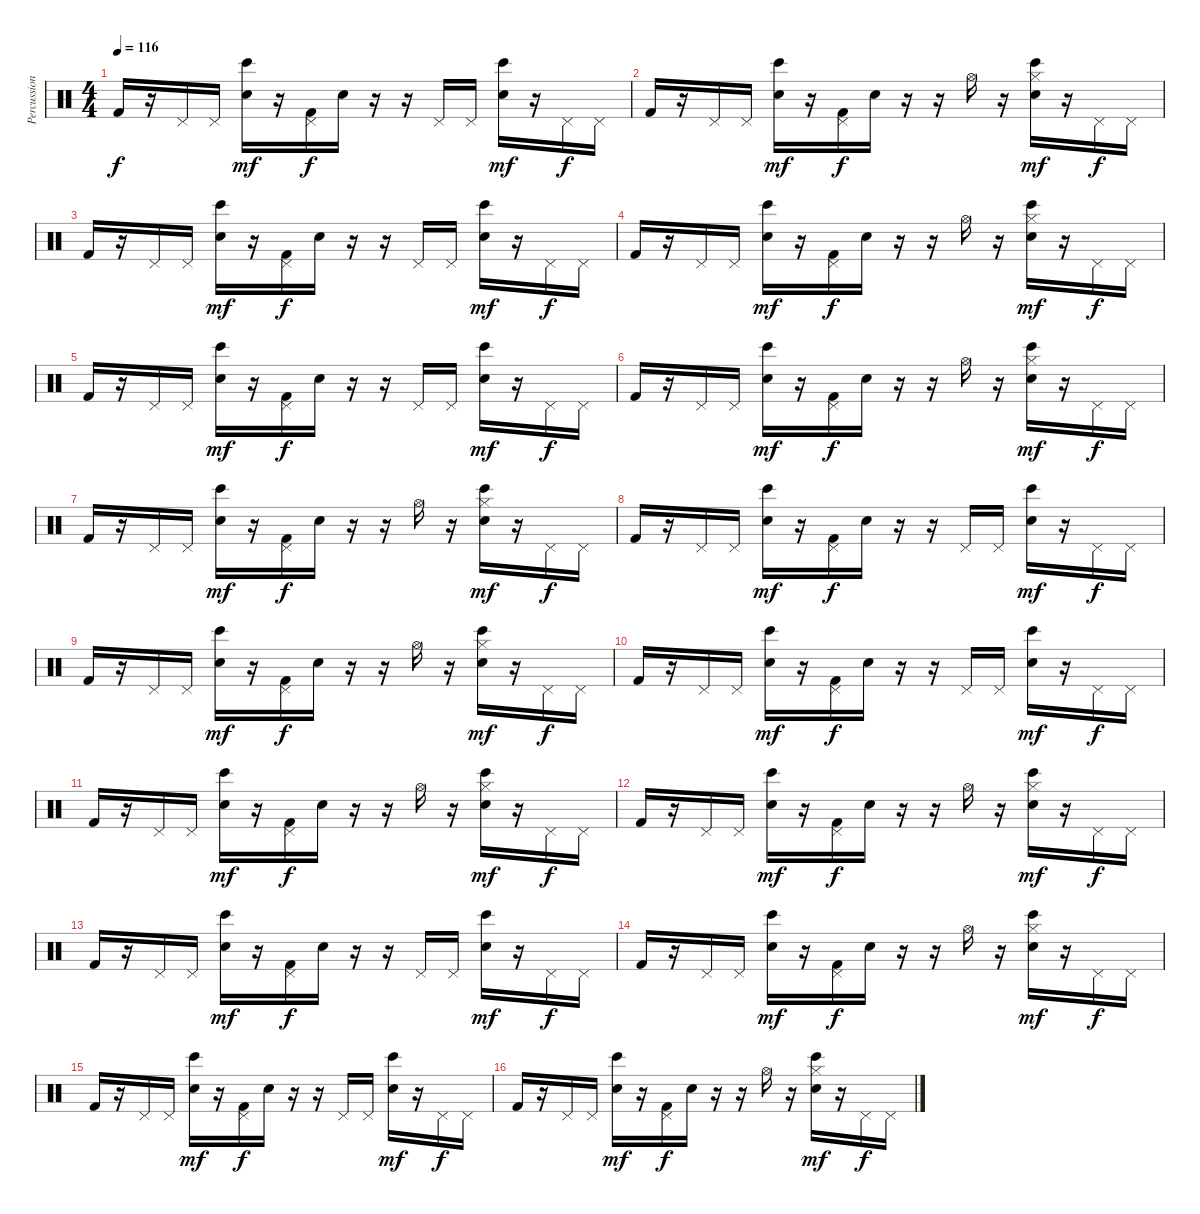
\track ("Percussion" "Percussion") {instrument percussion}
\staff {score}
\articulation defaults
\ts (4 4)
\tempo 116
\clef neutral
\ks c "Kick (hit) 2".16{dy f}
r.16 "Pedal Hi-Hat (hit)".16 "Pedal Hi-Hat (hit)".16 ("Bongo High (hit)" "Hand Clap (hit)").16{dy mf} r.16 ("Pedal Hi-Hat (hit)" "Kick (hit) 2").16{dy f} "Snare (hit)".16 r.16 r.16 "Pedal Hi-Hat (hit)".16 "Pedal Hi-Hat (hit)".16 ("Bongo High (hit)" "Hand Clap (hit)").16{dy mf} r.16 "Pedal Hi-Hat (hit)".16{dy f} "Pedal Hi-Hat (hit)".16 |
"Kick (hit) 2".16 r.16 "Pedal Hi-Hat (hit)".16 "Pedal Hi-Hat (hit)".16 ("Bongo High (hit)" "Hand Clap (hit)").16{dy mf} r.16 ("Pedal Hi-Hat (hit)" "Kick (hit) 2").16{dy f} "Snare (hit)".16 r.16 r.16 "Hi-Hat (open)".16 r.16 ("Hi-Hat (closed)" "Bongo High (hit)" "Hand Clap (hit)").16{dy mf} r.16 "Pedal Hi-Hat (hit)".16{dy f} "Pedal Hi-Hat (hit)".16 |
"Kick (hit) 2".16 r.16 "Pedal Hi-Hat (hit)".16 "Pedal Hi-Hat (hit)".16 ("Bongo High (hit)" "Hand Clap (hit)").16{dy mf} r.16 ("Pedal Hi-Hat (hit)" "Kick (hit) 2").16{dy f} "Snare (hit)".16 r.16 r.16 "Pedal Hi-Hat (hit)".16 "Pedal Hi-Hat (hit)".16 ("Bongo High (hit)" "Hand Clap (hit)").16{dy mf} r.16 "Pedal Hi-Hat (hit)".16{dy f} "Pedal Hi-Hat (hit)".16 |
"Kick (hit) 2".16 r.16 "Pedal Hi-Hat (hit)".16 "Pedal Hi-Hat (hit)".16 ("Bongo High (hit)" "Hand Clap (hit)").16{dy mf} r.16 ("Pedal Hi-Hat (hit)" "Kick (hit) 2").16{dy f} "Snare (hit)".16 r.16 r.16 "Hi-Hat (open)".16 r.16 ("Hi-Hat (closed)" "Bongo High (hit)" "Hand Clap (hit)").16{dy mf} r.16 "Pedal Hi-Hat (hit)".16{dy f} "Pedal Hi-Hat (hit)".16 |
"Kick (hit) 2".16 r.16 "Pedal Hi-Hat (hit)".16 "Pedal Hi-Hat (hit)".16 ("Bongo High (hit)" "Hand Clap (hit)").16{dy mf} r.16 ("Pedal Hi-Hat (hit)" "Kick (hit) 2").16{dy f} "Snare (hit)".16 r.16 r.16 "Pedal Hi-Hat (hit)".16 "Pedal Hi-Hat (hit)".16 ("Bongo High (hit)" "Hand Clap (hit)").16{dy mf} r.16 "Pedal Hi-Hat (hit)".16{dy f} "Pedal Hi-Hat (hit)".16 |
"Kick (hit) 2".16 r.16 "Pedal Hi-Hat (hit)".16 "Pedal Hi-Hat (hit)".16 ("Bongo High (hit)" "Hand Clap (hit)").16{dy mf} r.16 ("Pedal Hi-Hat (hit)" "Kick (hit) 2").16{dy f} "Snare (hit)".16 r.16 r.16 "Hi-Hat (open)".16 r.16 ("Hi-Hat (closed)" "Bongo High (hit)" "Hand Clap (hit)").16{dy mf} r.16 "Pedal Hi-Hat (hit)".16{dy f} "Pedal Hi-Hat (hit)".16 |
"Kick (hit) 2".16 r.16 "Pedal Hi-Hat (hit)".16 "Pedal Hi-Hat (hit)".16 ("Bongo High (hit)" "Hand Clap (hit)").16{dy mf} r.16 ("Pedal Hi-Hat (hit)" "Kick (hit) 2").16{dy f} "Snare (hit)".16 r.16 r.16 "Hi-Hat (open)".16 r.16 ("Hi-Hat (closed)" "Bongo High (hit)" "Hand Clap (hit)").16{dy mf} r.16 "Pedal Hi-Hat (hit)".16{dy f} "Pedal Hi-Hat (hit)".16 |
"Kick (hit) 2".16 r.16 "Pedal Hi-Hat (hit)".16 "Pedal Hi-Hat (hit)".16 ("Bongo High (hit)" "Hand Clap (hit)").16{dy mf} r.16 ("Pedal Hi-Hat (hit)" "Kick (hit) 2").16{dy f} "Snare (hit)".16 r.16 r.16 "Pedal Hi-Hat (hit)".16 "Pedal Hi-Hat (hit)".16 ("Bongo High (hit)" "Hand Clap (hit)").16{dy mf} r.16 "Pedal Hi-Hat (hit)".16{dy f} "Pedal Hi-Hat (hit)".16 |
"Kick (hit) 2".16 r.16 "Pedal Hi-Hat (hit)".16 "Pedal Hi-Hat (hit)".16 ("Bongo High (hit)" "Hand Clap (hit)").16{dy mf} r.16 ("Pedal Hi-Hat (hit)" "Kick (hit) 2").16{dy f} "Snare (hit)".16 r.16 r.16 "Hi-Hat (open)".16 r.16 ("Hi-Hat (closed)" "Bongo High (hit)" "Hand Clap (hit)").16{dy mf} r.16 "Pedal Hi-Hat (hit)".16{dy f} "Pedal Hi-Hat (hit)".16 |
"Kick (hit) 2".16 r.16 "Pedal Hi-Hat (hit)".16 "Pedal Hi-Hat (hit)".16 ("Bongo High (hit)" "Hand Clap (hit)").16{dy mf} r.16 ("Pedal Hi-Hat (hit)" "Kick (hit) 2").16{dy f} "Snare (hit)".16 r.16 r.16 "Pedal Hi-Hat (hit)".16 "Pedal Hi-Hat (hit)".16 ("Bongo High (hit)" "Hand Clap (hit)").16{dy mf} r.16 "Pedal Hi-Hat (hit)".16{dy f} "Pedal Hi-Hat (hit)".16 |
"Kick (hit) 2".16 r.16 "Pedal Hi-Hat (hit)".16 "Pedal Hi-Hat (hit)".16 ("Bongo High (hit)" "Hand Clap (hit)").16{dy mf} r.16 ("Pedal Hi-Hat (hit)" "Kick (hit) 2").16{dy f} "Snare (hit)".16 r.16 r.16 "Hi-Hat (open)".16 r.16 ("Hi-Hat (closed)" "Bongo High (hit)" "Hand Clap (hit)").16{dy mf} r.16 "Pedal Hi-Hat (hit)".16{dy f} "Pedal Hi-Hat (hit)".16 |
"Kick (hit) 2".16 r.16 "Pedal Hi-Hat (hit)".16 "Pedal Hi-Hat (hit)".16 ("Bongo High (hit)" "Hand Clap (hit)").16{dy mf} r.16 ("Pedal Hi-Hat (hit)" "Kick (hit) 2").16{dy f} "Snare (hit)".16 r.16 r.16 "Hi-Hat (open)".16 r.16 ("Hi-Hat (closed)" "Bongo High (hit)" "Hand Clap (hit)").16{dy mf} r.16 "Pedal Hi-Hat (hit)".16{dy f} "Pedal Hi-Hat (hit)".16 |
"Kick (hit) 2".16 r.16 "Pedal Hi-Hat (hit)".16 "Pedal Hi-Hat (hit)".16 ("Bongo High (hit)" "Hand Clap (hit)").16{dy mf} r.16 ("Pedal Hi-Hat (hit)" "Kick (hit) 2").16{dy f} "Snare (hit)".16 r.16 r.16 "Pedal Hi-Hat (hit)".16 "Pedal Hi-Hat (hit)".16 ("Bongo High (hit)" "Hand Clap (hit)").16{dy mf} r.16 "Pedal Hi-Hat (hit)".16{dy f} "Pedal Hi-Hat (hit)".16 |
"Kick (hit) 2".16 r.16 "Pedal Hi-Hat (hit)".16 "Pedal Hi-Hat (hit)".16 ("Bongo High (hit)" "Hand Clap (hit)").16{dy mf} r.16 ("Pedal Hi-Hat (hit)" "Kick (hit) 2").16{dy f} "Snare (hit)".16 r.16 r.16 "Hi-Hat (open)".16 r.16 ("Hi-Hat (closed)" "Bongo High (hit)" "Hand Clap (hit)").16{dy mf} r.16 "Pedal Hi-Hat (hit)".16{dy f} "Pedal Hi-Hat (hit)".16 |
"Kick (hit) 2".16 r.16 "Pedal Hi-Hat (hit)".16 "Pedal Hi-Hat (hit)".16 ("Bongo High (hit)" "Hand Clap (hit)").16{dy mf} r.16 ("Pedal Hi-Hat (hit)" "Kick (hit) 2").16{dy f} "Snare (hit)".16 r.16 r.16 "Pedal Hi-Hat (hit)".16 "Pedal Hi-Hat (hit)".16 ("Bongo High (hit)" "Hand Clap (hit)").16{dy mf} r.16 "Pedal Hi-Hat (hit)".16{dy f} "Pedal Hi-Hat (hit)".16 |
"Kick (hit) 2".16 r.16 "Pedal Hi-Hat (hit)".16 "Pedal Hi-Hat (hit)".16 ("Bongo High (hit)" "Hand Clap (hit)").16{dy mf} r.16 ("Pedal Hi-Hat (hit)" "Kick (hit) 2").16{dy f} "Snare (hit)".16 r.16 r.16 "Hi-Hat (open)".16 r.16 ("Hi-Hat (closed)" "Bongo High (hit)" "Hand Clap (hit)").16{dy mf} r.16 "Pedal Hi-Hat (hit)".16{dy f} "Pedal Hi-Hat (hit)".16
